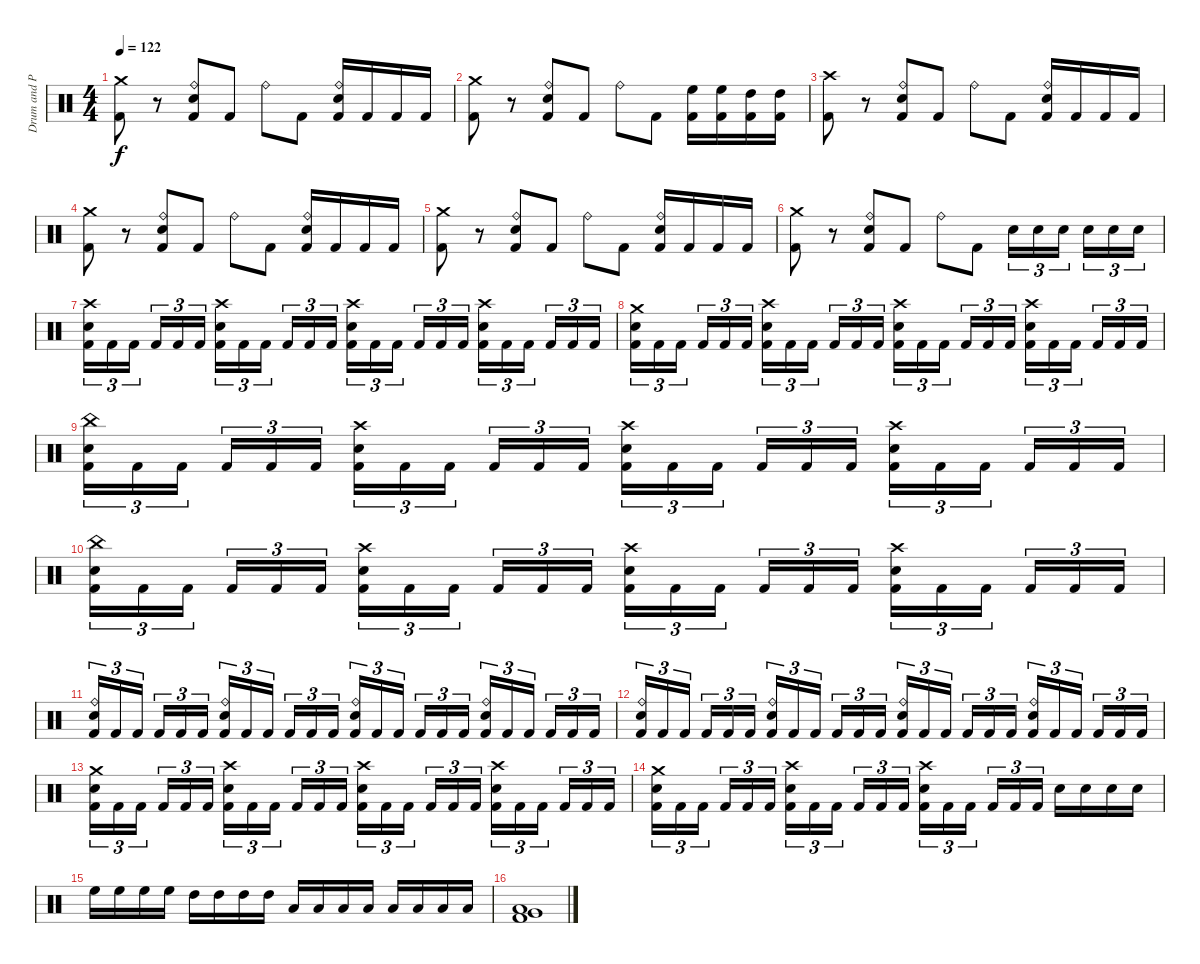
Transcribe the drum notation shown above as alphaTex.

\track ("Drum and Persscusian" "Drum and P") {instrument percussion}
\staff {score}
\articulation defaults
\ts (4 4)
\tempo 122
\clef neutral
\ks c
("Crash medium (hit)" "Kick (hit) 2").8{dy f} r.8 ("Ride (bell)" "Snare (hit) 2" "Kick (hit) 2").8 "Kick (hit) 2".8 "Ride (bell)".8 "Kick (hit) 2".8 ("Ride (bell)" "Snare (hit) 2" "Kick (hit) 2").16 "Kick (hit) 2".16 "Kick (hit) 2".16 "Kick (hit) 2".16 |
("Crash medium (hit)" "Kick (hit) 2").8 r.8 ("Ride (bell)" "Snare (hit) 2" "Kick (hit) 2").8 "Kick (hit) 2".8 "Ride (bell)".8 "Kick (hit) 2".8 ("High Floor Tom (hit)" "Kick (hit) 2").16 ("High Floor Tom (hit)" "Kick (hit) 2").16 ("High Tom (hit)" "Kick (hit) 2").16 ("High Tom (hit)" "Kick (hit) 2").16 |
("Crash high (hit)" "Kick (hit) 2").8 r.8 ("Ride (bell)" "Snare (hit) 2" "Kick (hit) 2").8 "Kick (hit) 2".8 "Ride (bell)".8 "Kick (hit) 2".8 ("Ride (bell)" "Snare (hit) 2" "Kick (hit) 2").16 "Kick (hit) 2".16 "Kick (hit) 2".16 "Kick (hit) 2".16 |
("Crash medium (hit)" "Kick (hit) 2").8 r.8 ("Ride (bell)" "Snare (hit) 2" "Kick (hit) 2").8 "Kick (hit) 2".8 "Ride (bell)".8 "Kick (hit) 2".8 ("Ride (bell)" "Snare (hit) 2" "Kick (hit) 2").16 "Kick (hit) 2".16 "Kick (hit) 2".16 "Kick (hit) 2".16 |
("Crash medium (hit)" "Kick (hit) 2").8 r.8 ("Ride (bell)" "Snare (hit) 2" "Kick (hit) 2").8 "Kick (hit) 2".8 "Ride (bell)".8 "Kick (hit) 2".8 ("Ride (bell)" "Snare (hit) 2" "Kick (hit) 2").16 "Kick (hit) 2".16 "Kick (hit) 2".16 "Kick (hit) 2".16 |
("Crash medium (hit)" "Kick (hit) 2").8 r.8 ("Ride (bell)" "Snare (hit) 2" "Kick (hit) 2").8 "Kick (hit) 2".8 "Ride (bell)".8 "Kick (hit) 2".8 "Snare (hit) 2".16{tu (3 2)} "Snare (hit) 2".16{tu (3 2)} "Snare (hit) 2".16{tu (3 2) beam splitsecondary} "Snare (hit) 2".16{tu (3 2)} "Snare (hit) 2".16{tu (3 2)} "Snare (hit) 2".16{tu (3 2)} |
("Crash high (hit)" "Snare (hit) 2" "Kick (hit) 2").16{tu (3 2)} "Kick (hit) 2".16{tu (3 2)} "Kick (hit) 2".16{tu (3 2) beam splitsecondary} "Kick (hit) 2".16{tu (3 2)} "Kick (hit) 2".16{tu (3 2)} "Kick (hit) 2".16{tu (3 2)} ("Crash high (hit)" "Snare (hit) 2" "Kick (hit) 2").16{tu (3 2)} "Kick (hit) 2".16{tu (3 2)} "Kick (hit) 2".16{tu (3 2) beam splitsecondary} "Kick (hit) 2".16{tu (3 2)} "Kick (hit) 2".16{tu (3 2)} "Kick (hit) 2".16{tu (3 2)} ("Crash high (hit)" "Snare (hit) 2" "Kick (hit) 2").16{tu (3 2)} "Kick (hit) 2".16{tu (3 2)} "Kick (hit) 2".16{tu (3 2) beam splitsecondary} "Kick (hit) 2".16{tu (3 2)} "Kick (hit) 2".16{tu (3 2)} "Kick (hit) 2".16{tu (3 2)} ("Crash high (hit)" "Snare (hit) 2" "Kick (hit) 2").16{tu (3 2)} "Kick (hit) 2".16{tu (3 2)} "Kick (hit) 2".16{tu (3 2) beam splitsecondary} "Kick (hit) 2".16{tu (3 2)} "Kick (hit) 2".16{tu (3 2)} "Kick (hit) 2".16{tu (3 2)} |
("Crash medium (hit)" "Snare (hit) 2" "Kick (hit) 2").16{tu (3 2)} "Kick (hit) 2".16{tu (3 2)} "Kick (hit) 2".16{tu (3 2) beam splitsecondary} "Kick (hit) 2".16{tu (3 2)} "Kick (hit) 2".16{tu (3 2)} "Kick (hit) 2".16{tu (3 2)} ("Crash high (hit)" "Snare (hit) 2" "Kick (hit) 2").16{tu (3 2)} "Kick (hit) 2".16{tu (3 2)} "Kick (hit) 2".16{tu (3 2) beam splitsecondary} "Kick (hit) 2".16{tu (3 2)} "Kick (hit) 2".16{tu (3 2)} "Kick (hit) 2".16{tu (3 2)} ("Crash high (hit)" "Snare (hit) 2" "Kick (hit) 2").16{tu (3 2)} "Kick (hit) 2".16{tu (3 2)} "Kick (hit) 2".16{tu (3 2) beam splitsecondary} "Kick (hit) 2".16{tu (3 2)} "Kick (hit) 2".16{tu (3 2)} "Kick (hit) 2".16{tu (3 2)} ("Crash high (hit)" "Snare (hit) 2" "Kick (hit) 2").16{tu (3 2)} "Kick (hit) 2".16{tu (3 2)} "Kick (hit) 2".16{tu (3 2) beam splitsecondary} "Kick (hit) 2".16{tu (3 2)} "Kick (hit) 2".16{tu (3 2)} "Kick (hit) 2".16{tu (3 2)} |
("China (hit)" "Snare (hit) 2" "Kick (hit) 2").16{tu (3 2)} "Kick (hit) 2".16{tu (3 2)} "Kick (hit) 2".16{tu (3 2) beam splitsecondary} "Kick (hit) 2".16{tu (3 2)} "Kick (hit) 2".16{tu (3 2)} "Kick (hit) 2".16{tu (3 2)} ("Crash high (hit)" "Snare (hit) 2" "Kick (hit) 2").16{tu (3 2)} "Kick (hit) 2".16{tu (3 2)} "Kick (hit) 2".16{tu (3 2) beam splitsecondary} "Kick (hit) 2".16{tu (3 2)} "Kick (hit) 2".16{tu (3 2)} "Kick (hit) 2".16{tu (3 2)} ("Crash high (hit)" "Snare (hit) 2" "Kick (hit) 2").16{tu (3 2)} "Kick (hit) 2".16{tu (3 2)} "Kick (hit) 2".16{tu (3 2) beam splitsecondary} "Kick (hit) 2".16{tu (3 2)} "Kick (hit) 2".16{tu (3 2)} "Kick (hit) 2".16{tu (3 2)} ("Crash high (hit)" "Snare (hit) 2" "Kick (hit) 2").16{tu (3 2)} "Kick (hit) 2".16{tu (3 2)} "Kick (hit) 2".16{tu (3 2) beam splitsecondary} "Kick (hit) 2".16{tu (3 2)} "Kick (hit) 2".16{tu (3 2)} "Kick (hit) 2".16{tu (3 2)} |
("China (hit)" "Snare (hit) 2" "Kick (hit) 2").16{tu (3 2)} "Kick (hit) 2".16{tu (3 2)} "Kick (hit) 2".16{tu (3 2) beam splitsecondary} "Kick (hit) 2".16{tu (3 2)} "Kick (hit) 2".16{tu (3 2)} "Kick (hit) 2".16{tu (3 2)} ("Crash high (hit)" "Snare (hit) 2" "Kick (hit) 2").16{tu (3 2)} "Kick (hit) 2".16{tu (3 2)} "Kick (hit) 2".16{tu (3 2) beam splitsecondary} "Kick (hit) 2".16{tu (3 2)} "Kick (hit) 2".16{tu (3 2)} "Kick (hit) 2".16{tu (3 2)} ("Crash high (hit)" "Snare (hit) 2" "Kick (hit) 2").16{tu (3 2)} "Kick (hit) 2".16{tu (3 2)} "Kick (hit) 2".16{tu (3 2) beam splitsecondary} "Kick (hit) 2".16{tu (3 2)} "Kick (hit) 2".16{tu (3 2)} "Kick (hit) 2".16{tu (3 2)} ("Crash high (hit)" "Snare (hit) 2" "Kick (hit) 2").16{tu (3 2)} "Kick (hit) 2".16{tu (3 2)} "Kick (hit) 2".16{tu (3 2) beam splitsecondary} "Kick (hit) 2".16{tu (3 2)} "Kick (hit) 2".16{tu (3 2)} "Kick (hit) 2".16{tu (3 2)} |
("Ride (bell)" "Snare (hit) 2" "Kick (hit) 2").16{tu (3 2)} "Kick (hit) 2".16{tu (3 2)} "Kick (hit) 2".16{tu (3 2) beam splitsecondary} "Kick (hit) 2".16{tu (3 2)} "Kick (hit) 2".16{tu (3 2)} "Kick (hit) 2".16{tu (3 2)} ("Ride (bell)" "Snare (hit) 2" "Kick (hit) 2").16{tu (3 2)} "Kick (hit) 2".16{tu (3 2)} "Kick (hit) 2".16{tu (3 2) beam splitsecondary} "Kick (hit) 2".16{tu (3 2)} "Kick (hit) 2".16{tu (3 2)} "Kick (hit) 2".16{tu (3 2)} ("Ride (bell)" "Snare (hit) 2" "Kick (hit) 2").16{tu (3 2)} "Kick (hit) 2".16{tu (3 2)} "Kick (hit) 2".16{tu (3 2) beam splitsecondary} "Kick (hit) 2".16{tu (3 2)} "Kick (hit) 2".16{tu (3 2)} "Kick (hit) 2".16{tu (3 2)} ("Ride (bell)" "Snare (hit) 2" "Kick (hit) 2").16{tu (3 2)} "Kick (hit) 2".16{tu (3 2)} "Kick (hit) 2".16{tu (3 2) beam splitsecondary} "Kick (hit) 2".16{tu (3 2)} "Kick (hit) 2".16{tu (3 2)} "Kick (hit) 2".16{tu (3 2)} |
("Ride (bell)" "Snare (hit) 2" "Kick (hit) 2").16{tu (3 2)} "Kick (hit) 2".16{tu (3 2)} "Kick (hit) 2".16{tu (3 2) beam splitsecondary} "Kick (hit) 2".16{tu (3 2)} "Kick (hit) 2".16{tu (3 2)} "Kick (hit) 2".16{tu (3 2)} ("Ride (bell)" "Snare (hit) 2" "Kick (hit) 2").16{tu (3 2)} "Kick (hit) 2".16{tu (3 2)} "Kick (hit) 2".16{tu (3 2) beam splitsecondary} "Kick (hit) 2".16{tu (3 2)} "Kick (hit) 2".16{tu (3 2)} "Kick (hit) 2".16{tu (3 2)} ("Ride (bell)" "Snare (hit) 2" "Kick (hit) 2").16{tu (3 2)} "Kick (hit) 2".16{tu (3 2)} "Kick (hit) 2".16{tu (3 2) beam splitsecondary} "Kick (hit) 2".16{tu (3 2)} "Kick (hit) 2".16{tu (3 2)} "Kick (hit) 2".16{tu (3 2)} ("Ride (bell)" "Snare (hit) 2" "Kick (hit) 2").16{tu (3 2)} "Kick (hit) 2".16{tu (3 2)} "Kick (hit) 2".16{tu (3 2) beam splitsecondary} "Kick (hit) 2".16{tu (3 2)} "Kick (hit) 2".16{tu (3 2)} "Kick (hit) 2".16{tu (3 2)} |
("Crash medium (hit)" "Snare (hit) 2" "Kick (hit) 2").16{tu (3 2)} "Kick (hit) 2".16{tu (3 2)} "Kick (hit) 2".16{tu (3 2) beam splitsecondary} "Kick (hit) 2".16{tu (3 2)} "Kick (hit) 2".16{tu (3 2)} "Kick (hit) 2".16{tu (3 2)} ("Crash high (hit)" "Snare (hit) 2" "Kick (hit) 2").16{tu (3 2)} "Kick (hit) 2".16{tu (3 2)} "Kick (hit) 2".16{tu (3 2) beam splitsecondary} "Kick (hit) 2".16{tu (3 2)} "Kick (hit) 2".16{tu (3 2)} "Kick (hit) 2".16{tu (3 2)} ("Crash high (hit)" "Snare (hit) 2" "Kick (hit) 2").16{tu (3 2)} "Kick (hit) 2".16{tu (3 2)} "Kick (hit) 2".16{tu (3 2) beam splitsecondary} "Kick (hit) 2".16{tu (3 2)} "Kick (hit) 2".16{tu (3 2)} "Kick (hit) 2".16{tu (3 2)} ("Crash high (hit)" "Snare (hit) 2" "Kick (hit) 2").16{tu (3 2)} "Kick (hit) 2".16{tu (3 2)} "Kick (hit) 2".16{tu (3 2) beam splitsecondary} "Kick (hit) 2".16{tu (3 2)} "Kick (hit) 2".16{tu (3 2)} "Kick (hit) 2".16{tu (3 2)} |
("Crash medium (hit)" "Snare (hit) 2" "Kick (hit) 2").16{tu (3 2)} "Kick (hit) 2".16{tu (3 2)} "Kick (hit) 2".16{tu (3 2) beam splitsecondary} "Kick (hit) 2".16{tu (3 2)} "Kick (hit) 2".16{tu (3 2)} "Kick (hit) 2".16{tu (3 2)} ("Crash high (hit)" "Snare (hit) 2" "Kick (hit) 2").16{tu (3 2)} "Kick (hit) 2".16{tu (3 2)} "Kick (hit) 2".16{tu (3 2) beam splitsecondary} "Kick (hit) 2".16{tu (3 2)} "Kick (hit) 2".16{tu (3 2)} "Kick (hit) 2".16{tu (3 2)} ("Crash high (hit)" "Snare (hit) 2" "Kick (hit) 2").16{tu (3 2)} "Kick (hit) 2".16{tu (3 2)} "Kick (hit) 2".16{tu (3 2) beam splitsecondary} "Kick (hit) 2".16{tu (3 2)} "Kick (hit) 2".16{tu (3 2)} "Kick (hit) 2".16{tu (3 2)} "Snare (hit) 2".16 "Snare (hit) 2".16 "Snare (hit) 2".16 "Snare (hit) 2".16 |
"High Floor Tom (hit)".16 "High Floor Tom (hit)".16 "High Floor Tom (hit)".16 "High Floor Tom (hit)".16 "High Tom (hit)".16 "High Tom (hit)".16 "High Tom (hit)".16 "High Tom (hit)".16 "Low Tom (hit)".16 "Low Tom (hit)".16 "Low Tom (hit)".16 "Low Tom (hit)".16 "Low Floor Tom (hit)".16 "Low Floor Tom (hit)".16 "Low Floor Tom (hit)".16 "Low Floor Tom (hit)".16 |
("Very Low Tom (hit)" "Low Floor Tom (hit)" "Kick (hit) 2").1
